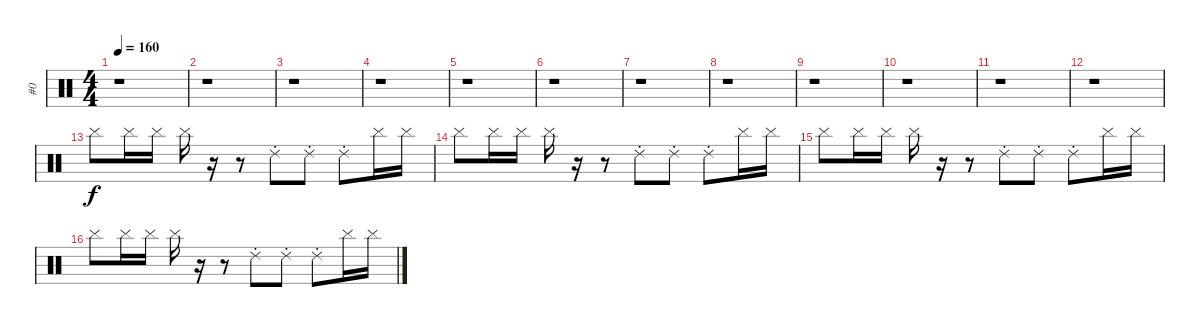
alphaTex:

\track ("#0" "#0") {instrument percussion}
\staff {score}
\articulation defaults
\ts (4 4)
\tempo 160
\clef neutral
\ks c
r.1{dy f} |
r.1 |
r.1 |
r.1 |
r.1 |
r.1 |
r.1 |
r.1 |
r.1 |
r.1 |
r.1 |
r.1 |
"Cymbal (hit)".8 "Cymbal (hit)".16 "Cymbal (hit)".16 "Cymbal (hit)".16 r.16 r.8 "Ride (choke) 2".8 "Ride (choke) 2".8 "Ride (choke) 2".8 "Cymbal (hit)".16 "Cymbal (hit)".16 |
"Cymbal (hit)".8 "Cymbal (hit)".16 "Cymbal (hit)".16 "Cymbal (hit)".16 r.16 r.8 "Ride (choke) 2".8 "Ride (choke) 2".8 "Ride (choke) 2".8 "Cymbal (hit)".16 "Cymbal (hit)".16 |
"Cymbal (hit)".8 "Cymbal (hit)".16 "Cymbal (hit)".16 "Cymbal (hit)".16 r.16 r.8 "Ride (choke) 2".8 "Ride (choke) 2".8 "Ride (choke) 2".8 "Cymbal (hit)".16 "Cymbal (hit)".16 |
"Cymbal (hit)".8 "Cymbal (hit)".16 "Cymbal (hit)".16 "Cymbal (hit)".16 r.16 r.8 "Ride (choke) 2".8 "Ride (choke) 2".8 "Ride (choke) 2".8 "Cymbal (hit)".16 "Cymbal (hit)".16
